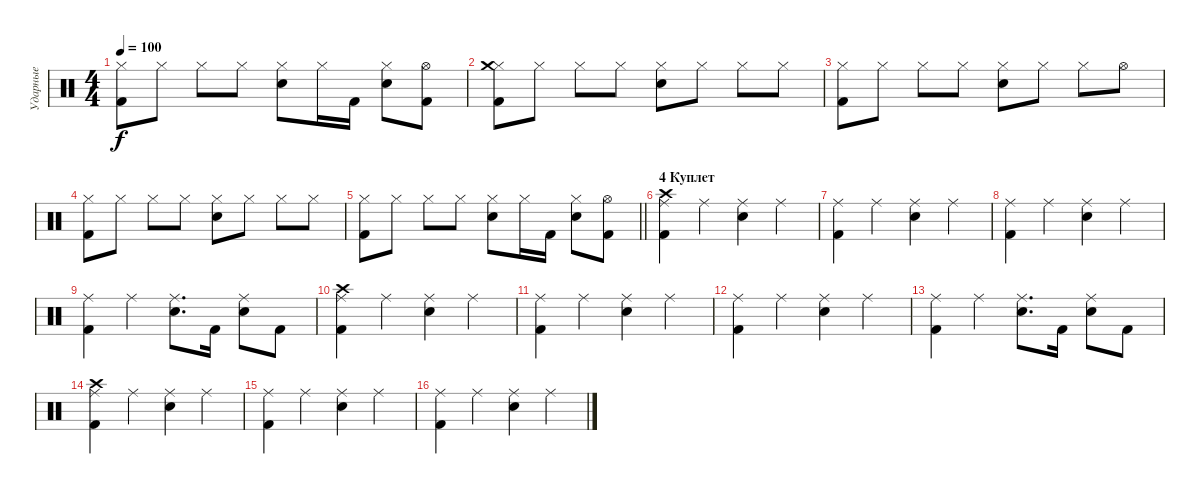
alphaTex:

\track ("Ударные" "Ударные") {instrument percussion}
\staff {score}
\articulation defaults
\ts (4 4)
\tempo 100
\clef neutral
\ks c
("Hi-Hat (closed)" "Kick (hit) 2").8{dy f} "Hi-Hat (closed)".8 "Hi-Hat (closed)".8 "Hi-Hat (closed)".8 ("Hi-Hat (closed)" "Snare (hit) 2").8 "Hi-Hat (closed)".16 "Kick (hit) 2".16 ("Hi-Hat (closed)" "Snare (hit) 2").8 ("Hi-Hat (open)" "Kick (hit) 2").8 |
("Hi-Hat (closed)" "Kick (hit) 2" "Crash medium (hit)").8 "Hi-Hat (closed)".8 "Hi-Hat (closed)".8 "Hi-Hat (closed)".8 ("Hi-Hat (closed)" "Snare (hit) 2").8 "Hi-Hat (closed)".8 "Hi-Hat (closed)".8 "Hi-Hat (closed)".8 |
("Hi-Hat (closed)" "Kick (hit) 2").8 "Hi-Hat (closed)".8 "Hi-Hat (closed)".8 "Hi-Hat (closed)".8 ("Hi-Hat (closed)" "Snare (hit) 2").8 "Hi-Hat (closed)".8 "Hi-Hat (closed)".8 "Hi-Hat (open)".8 |
("Hi-Hat (closed)" "Kick (hit) 2").8 "Hi-Hat (closed)".8 "Hi-Hat (closed)".8 "Hi-Hat (closed)".8 ("Hi-Hat (closed)" "Snare (hit) 2").8 "Hi-Hat (closed)".8 "Hi-Hat (closed)".8 "Hi-Hat (closed)".8 |
\barLineRight lightlight
("Hi-Hat (closed)" "Kick (hit) 2").8 "Hi-Hat (closed)".8 "Hi-Hat (closed)".8 "Hi-Hat (closed)".8 ("Hi-Hat (closed)" "Snare (hit) 2").8 "Hi-Hat (closed)".16 "Kick (hit) 2".16 ("Hi-Hat (closed)" "Snare (hit) 2").8 ("Hi-Hat (open)" "Kick (hit) 2").8 |
\section ("" "4 Куплет")
("Ride (middle)" "Kick (hit) 2" "Crash high (hit)").4 "Ride (middle)".4 ("Ride (middle)" "Snare (hit) 2").4 "Ride (middle)".4 |
("Ride (middle)" "Kick (hit) 2").4 "Ride (middle)".4 ("Ride (middle)" "Snare (hit) 2").4 "Ride (middle)".4 |
("Ride (middle)" "Kick (hit) 2").4 "Ride (middle)".4 ("Ride (middle)" "Snare (hit) 2").4 "Ride (middle)".4 |
("Ride (middle)" "Kick (hit) 2").4 "Ride (middle)".4 ("Ride (middle)" "Snare (hit) 2").8{d} "Kick (hit) 2".16 ("Ride (middle)" "Snare (hit) 2").8 "Kick (hit) 2".8 |
("Ride (middle)" "Kick (hit) 2" "Crash high (hit)").4 "Ride (middle)".4 ("Ride (middle)" "Snare (hit) 2").4 "Ride (middle)".4 |
("Ride (middle)" "Kick (hit) 2").4 "Ride (middle)".4 ("Ride (middle)" "Snare (hit) 2").4 "Ride (middle)".4 |
("Ride (middle)" "Kick (hit) 2").4 "Ride (middle)".4 ("Ride (middle)" "Snare (hit) 2").4 "Ride (middle)".4 |
("Ride (middle)" "Kick (hit) 2").4 "Ride (middle)".4 ("Ride (middle)" "Snare (hit) 2").8{d} "Kick (hit) 2".16 ("Ride (middle)" "Snare (hit) 2").8 "Kick (hit) 2".8 |
("Ride (middle)" "Kick (hit) 2" "Crash high (hit)").4 "Ride (middle)".4 ("Ride (middle)" "Snare (hit) 2").4 "Ride (middle)".4 |
("Ride (middle)" "Kick (hit) 2").4 "Ride (middle)".4 ("Ride (middle)" "Snare (hit) 2").4 "Ride (middle)".4 |
("Ride (middle)" "Kick (hit) 2").4 "Ride (middle)".4 ("Ride (middle)" "Snare (hit) 2").4 "Ride (middle)".4
